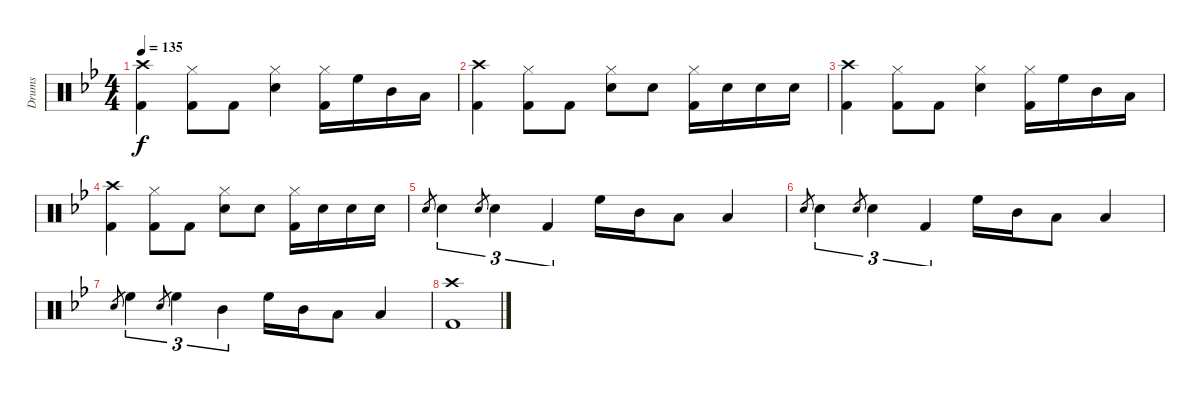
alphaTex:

\track ("Drums" "Drums") {instrument percussion}
\staff {score}
\articulation defaults
\ts (4 4)
\tempo 135
\clef neutral
\ks bb
("Crash high (hit)" "Kick (hit) 2").4{dy f} ("Hi-Hat (closed)" "Kick (hit) 2").8 "Kick (hit) 2".8 ("Hi-Hat (closed)" "Snare (hit) 2").4 ("Hi-Hat (closed)" "Kick (hit) 2").16 "High Floor Tom (hit)".16 "Mid Tom (hit)".16 "Low Tom (hit)".16 |
("Crash high (hit)" "Kick (hit) 2").4 ("Hi-Hat (closed)" "Kick (hit) 2").8 "Kick (hit) 2".8 ("Hi-Hat (closed)" "Snare (hit) 2").8 "Snare (hit) 2".8 ("Hi-Hat (closed)" "Kick (hit) 2").16 "Snare (hit) 2".16 "Snare (hit) 2".16 "Snare (hit) 2".16 |
("Crash high (hit)" "Kick (hit) 2").4 ("Hi-Hat (closed)" "Kick (hit) 2").8 "Kick (hit) 2".8 ("Hi-Hat (closed)" "Snare (hit) 2").4 ("Hi-Hat (closed)" "Kick (hit) 2").16 "High Floor Tom (hit)".16 "Mid Tom (hit)".16 "Low Tom (hit)".16 |
("Crash high (hit)" "Kick (hit) 2").4 ("Hi-Hat (closed)" "Kick (hit) 2").8 "Kick (hit) 2".8 ("Hi-Hat (closed)" "Snare (hit) 2").8 "Snare (hit) 2".8 ("Hi-Hat (closed)" "Kick (hit) 2").16 "Snare (hit) 2".16 "Snare (hit) 2".16 "Snare (hit) 2".16 |
"Snare (hit) 2".8{gr} "Snare (hit) 2".4{tu (3 2)} "Snare (hit) 2".8{gr} "Snare (hit) 2".4{tu (3 2)} "Kick (hit) 2".4{tu (3 2)} "High Floor Tom (hit)".16 "Mid Tom (hit)".16 "Low Tom (hit)".8 "Low Floor Tom (hit)".4 |
"Snare (hit) 2".8{gr} "Snare (hit) 2".4{tu (3 2)} "Snare (hit) 2".8{gr} "Snare (hit) 2".4{tu (3 2)} "Kick (hit) 2".4{tu (3 2)} "High Floor Tom (hit)".16 "Mid Tom (hit)".16 "Low Tom (hit)".8 "Low Floor Tom (hit)".4 |
"Snare (hit) 2".8{gr} "High Floor Tom (hit)".4{tu (3 2)} "Snare (hit) 2".8{gr} "High Floor Tom (hit)".4{tu (3 2)} "Mid Tom (hit)".4{tu (3 2)} "High Floor Tom (hit)".16 "Mid Tom (hit)".16 "Low Tom (hit)".8 "Low Floor Tom (hit)".4 |
("Crash high (hit)" "Kick (hit) 2").1
